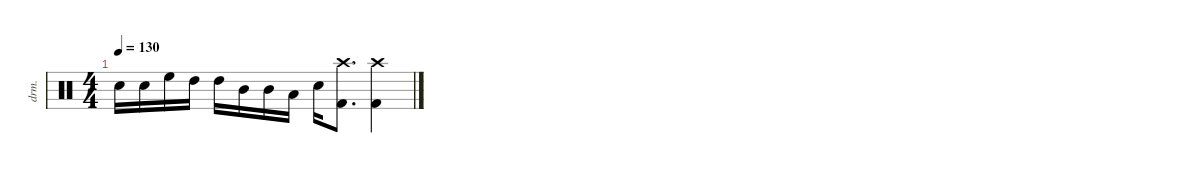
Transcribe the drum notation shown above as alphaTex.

\defaultSystemsLayout 4
\hideDynamics
\bracketExtendMode nobrackets
\otherSystemsTrackNameOrientation horizontal
\track ("Drums" "drm.") {instrument percussion}
\staff {score}
\articulation defaults
\ts (4 4)
\tempo 130
\clef neutral
\ks c "Snare (hit) 2".16{dy f beam Down} "Snare (hit) 2".16{beam Down} "High Floor Tom (hit)".16{beam Down} "High Tom (hit)".16{beam Down} "High Tom (hit)".16{beam Down} "Mid Tom (hit)".16{beam Down} "Mid Tom (hit)".16{beam Down} "Low Tom (hit)".16{beam Down} "Snare (hit) 2".16{beam Down}
("Crash high (hit)" "Kick (hit) 2").8{d beam Down} ("Crash high (hit)" "Kick (hit) 2").4{beam Down}
